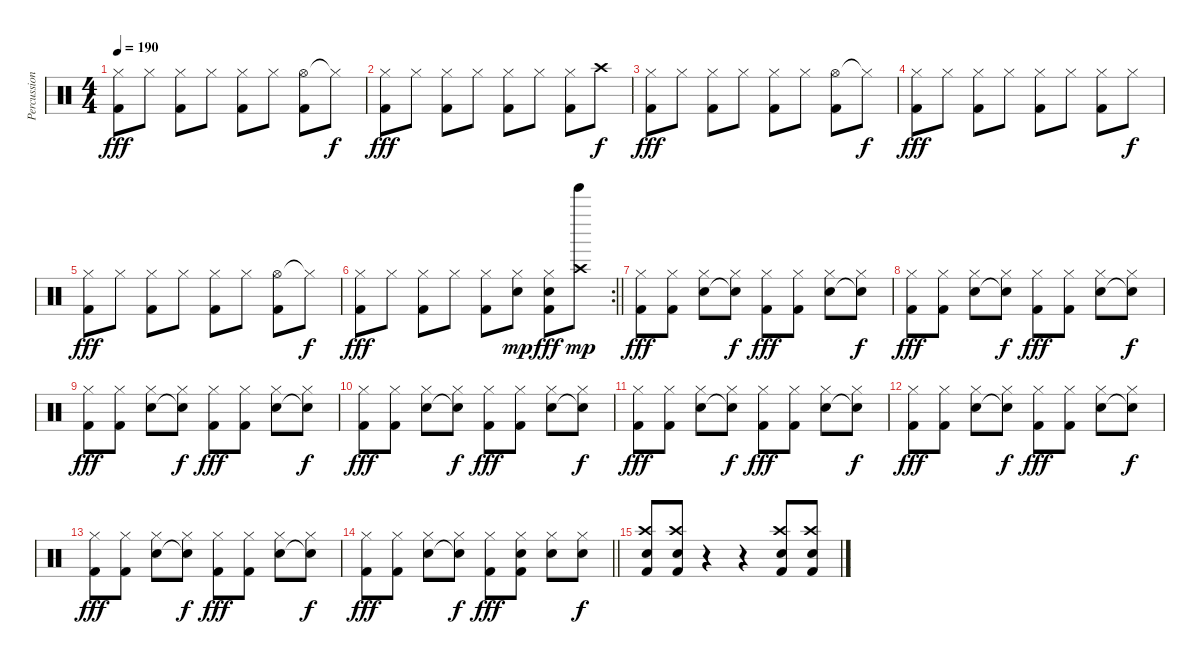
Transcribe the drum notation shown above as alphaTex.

\track ("Percussion" "Percussion") {instrument percussion}
\staff {score}
\articulation defaults
\ts (4 4)
\tempo 190
\clef neutral
\ks c
("Hi-Hat (closed)" "Kick (hit) 2").8{dy fff} "Hi-Hat (closed)".8 ("Hi-Hat (closed)" "Kick (hit) 2").8 "Hi-Hat (closed)".8 ("Hi-Hat (closed)" "Kick (hit) 2").8 "Hi-Hat (closed)".8 ("Hi-Hat (open)" "Kick (hit) 2").8 "Hi-Hat (closed)"{t}.8{dy f} |
("Hi-Hat (closed)" "Kick (hit) 2").8{dy fff} "Hi-Hat (closed)".8 ("Hi-Hat (closed)" "Kick (hit) 2").8 "Hi-Hat (closed)".8 ("Hi-Hat (closed)" "Kick (hit) 2").8 "Hi-Hat (closed)".8 ("Hi-Hat (closed)" "Kick (hit) 2").8 "Crash high (hit)".8{dy f} |
("Hi-Hat (closed)" "Kick (hit) 2").8{dy fff} "Hi-Hat (closed)".8 ("Hi-Hat (closed)" "Kick (hit) 2").8 "Hi-Hat (closed)".8 ("Hi-Hat (closed)" "Kick (hit) 2").8 "Hi-Hat (closed)".8 ("Hi-Hat (open)" "Kick (hit) 2").8 "Hi-Hat (closed)"{t}.8{dy f} |
("Hi-Hat (closed)" "Kick (hit) 2").8{dy fff} "Hi-Hat (closed)".8 ("Hi-Hat (closed)" "Kick (hit) 2").8 "Hi-Hat (closed)".8 ("Hi-Hat (closed)" "Kick (hit) 2").8 "Hi-Hat (closed)".8 ("Hi-Hat (closed)" "Kick (hit) 2").8 "Hi-Hat (closed)".8{dy f} |
("Hi-Hat (closed)" "Kick (hit) 2").8{dy fff} "Hi-Hat (closed)".8 ("Hi-Hat (closed)" "Kick (hit) 2").8 "Hi-Hat (closed)".8 ("Hi-Hat (closed)" "Kick (hit) 2").8 "Hi-Hat (closed)".8 ("Hi-Hat (open)" "Kick (hit) 2").8 "Hi-Hat (closed)"{t}.8{dy f} |
\rc 2
\barLineRight lightlight
("Hi-Hat (closed)" "Kick (hit) 2").8{dy fff} "Hi-Hat (closed)".8 ("Hi-Hat (closed)" "Kick (hit) 2").8 "Hi-Hat (closed)".8 ("Hi-Hat (closed)" "Kick (hit) 2").8 ("Hi-Hat (closed)" "Snare (hit) 2").8{dy mp} ("Hi-Hat (closed)" "Snare (hit) 2" "Kick (hit) 2").8{dy fff} ("Crash high (hit)" "Tinkle Bell (hit)").8{dy mp} |
\section ("" "")
("Hi-Hat (closed)" "Kick (hit) 2").8{dy fff} ("Hi-Hat (closed)" "Kick (hit) 2").8 ("Hi-Hat (closed)" "Snare (hit) 2").8 ("Hi-Hat (closed)" "Snare (hit)"{t}).8{dy f} ("Hi-Hat (closed)" "Kick (hit) 2").8{dy fff} ("Hi-Hat (closed)" "Kick (hit) 2").8 ("Hi-Hat (closed)" "Snare (hit) 2").8 ("Hi-Hat (closed)" "Snare (hit)"{t}).8{dy f} |
("Hi-Hat (closed)" "Kick (hit) 2").8{dy fff} ("Hi-Hat (closed)" "Kick (hit) 2").8 ("Hi-Hat (closed)" "Snare (hit) 2").8 ("Hi-Hat (closed)" "Snare (hit)"{t}).8{dy f} ("Hi-Hat (closed)" "Kick (hit) 2").8{dy fff} ("Hi-Hat (closed)" "Kick (hit) 2").8 ("Hi-Hat (closed)" "Snare (hit) 2").8 ("Hi-Hat (closed)" "Snare (hit)"{t}).8{dy f} |
("Hi-Hat (closed)" "Kick (hit) 2").8{dy fff} ("Hi-Hat (closed)" "Kick (hit) 2").8 ("Hi-Hat (closed)" "Snare (hit) 2").8 ("Hi-Hat (closed)" "Snare (hit)"{t}).8{dy f} ("Hi-Hat (closed)" "Kick (hit) 2").8{dy fff} ("Hi-Hat (closed)" "Kick (hit) 2").8 ("Hi-Hat (closed)" "Snare (hit) 2").8 ("Hi-Hat (closed)" "Snare (hit)"{t}).8{dy f} |
("Hi-Hat (closed)" "Kick (hit) 2").8{dy fff} ("Hi-Hat (closed)" "Kick (hit) 2").8 ("Hi-Hat (closed)" "Snare (hit) 2").8 ("Hi-Hat (closed)" "Snare (hit)"{t}).8{dy f} ("Hi-Hat (closed)" "Kick (hit) 2").8{dy fff} ("Hi-Hat (closed)" "Kick (hit) 2").8 ("Hi-Hat (closed)" "Snare (hit) 2").8 ("Hi-Hat (closed)" "Snare (hit)"{t}).8{dy f} |
("Hi-Hat (closed)" "Kick (hit) 2").8{dy fff} ("Hi-Hat (closed)" "Kick (hit) 2").8 ("Hi-Hat (closed)" "Snare (hit) 2").8 ("Hi-Hat (closed)" "Snare (hit)"{t}).8{dy f} ("Hi-Hat (closed)" "Kick (hit) 2").8{dy fff} ("Hi-Hat (closed)" "Kick (hit) 2").8 ("Hi-Hat (closed)" "Snare (hit) 2").8 ("Hi-Hat (closed)" "Snare (hit)"{t}).8{dy f} |
("Hi-Hat (closed)" "Kick (hit) 2").8{dy fff} ("Hi-Hat (closed)" "Kick (hit) 2").8 ("Hi-Hat (closed)" "Snare (hit) 2").8 ("Hi-Hat (closed)" "Snare (hit)"{t}).8{dy f} ("Hi-Hat (closed)" "Kick (hit) 2").8{dy fff} ("Hi-Hat (closed)" "Kick (hit) 2").8 ("Hi-Hat (closed)" "Snare (hit) 2").8 ("Hi-Hat (closed)" "Snare (hit)"{t}).8{dy f} |
("Hi-Hat (closed)" "Kick (hit) 2").8{dy fff} ("Hi-Hat (closed)" "Kick (hit) 2").8 ("Hi-Hat (closed)" "Snare (hit) 2").8 ("Hi-Hat (closed)" "Snare (hit)"{t}).8{dy f} ("Hi-Hat (closed)" "Kick (hit) 2").8{dy fff} ("Hi-Hat (closed)" "Kick (hit) 2").8 ("Hi-Hat (closed)" "Snare (hit) 2").8 ("Hi-Hat (closed)" "Snare (hit)"{t}).8{dy f} |
\barLineRight lightlight
("Hi-Hat (closed)" "Kick (hit) 2").8{dy fff} ("Hi-Hat (closed)" "Kick (hit) 2").8 ("Hi-Hat (closed)" "Snare (hit) 2").8 ("Hi-Hat (closed)" "Snare (hit)"{t}).8{dy f} ("Hi-Hat (closed)" "Kick (hit) 2").8{dy fff} ("Hi-Hat (closed)" "Snare (hit) 2" "Kick (hit) 2").8 ("Hi-Hat (closed)" "Snare (hit) 2").8 ("Hi-Hat (closed)" "Snare (hit) 2").8{dy f} |
\section ("" "")
("Crash high (hit)" "Snare (hit) 2" "Kick (hit) 2").8 ("Crash high (hit)" "Snare (hit) 2" "Kick (hit) 2").8 r.4 r.4 ("Crash high (hit)" "Snare (hit) 2" "Kick (hit) 2").8 ("Crash high (hit)" "Snare (hit) 2" "Kick (hit) 2").8
